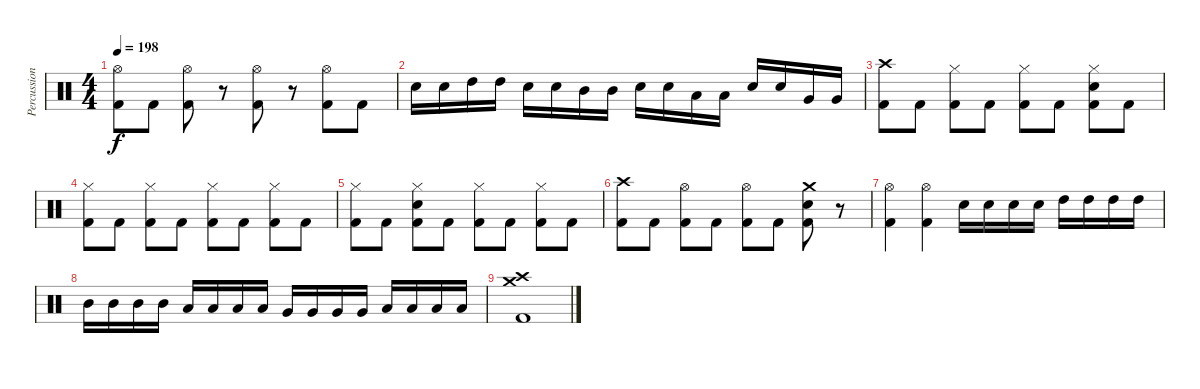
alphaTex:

\track ("Percussion" "Percussion") {instrument percussion}
\staff {score}
\articulation defaults
\ts (4 4)
\tempo 198
\clef neutral
\ks c
("Hi-Hat (open)" "Kick (hit) 2").8{dy f} "Kick (hit) 2".8 ("Hi-Hat (open)" "Kick (hit) 2").8 r.8 ("Hi-Hat (open)" "Kick (hit) 2").8 r.8 ("Hi-Hat (open)" "Kick (hit) 2").8 "Kick (hit) 2".8 |
"Electric Snare (hit)".16 "Electric Snare (hit)".16 "High Tom (hit)".16 "High Tom (hit)".16 "Electric Snare (hit)".16 "Electric Snare (hit)".16 "Mid Tom (hit)".16 "Mid Tom (hit)".16 "Electric Snare (hit)".16 "Electric Snare (hit)".16 "Low Tom (hit)".16 "Low Tom (hit)".16 "Electric Snare (hit)".16 "Electric Snare (hit)".16 "Very Low Tom (hit)".16 "Very Low Tom (hit)".16 |
("Crash high (hit)" "Kick (hit) 2").8 "Kick (hit) 2".8 ("Hi-Hat (closed)" "Kick (hit) 2").8 "Kick (hit) 2".8 ("Hi-Hat (closed)" "Kick (hit) 2").8 "Kick (hit) 2".8 ("Hi-Hat (closed)" "Electric Snare (hit)" "Kick (hit) 2").8 "Kick (hit) 2".8 |
("Hi-Hat (closed)" "Kick (hit) 2").8 "Kick (hit) 2".8 ("Hi-Hat (closed)" "Kick (hit) 2").8 "Kick (hit) 2".8 ("Hi-Hat (closed)" "Kick (hit) 2").8 "Kick (hit) 2".8 ("Hi-Hat (closed)" "Kick (hit) 2").8 "Kick (hit) 2".8 |
("Hi-Hat (closed)" "Kick (hit) 2").8 "Kick (hit) 2".8 ("Hi-Hat (closed)" "Electric Snare (hit)" "Kick (hit) 2").8 "Kick (hit) 2".8 ("Hi-Hat (closed)" "Kick (hit) 2").8 "Kick (hit) 2".8 ("Hi-Hat (closed)" "Kick (hit) 2").8 "Kick (hit) 2".8 |
("Crash high (hit)" "Kick (hit) 2").8 "Kick (hit) 2".8 ("Hi-Hat (open)" "Kick (hit) 2").8 "Kick (hit) 2".8 ("Hi-Hat (open)" "Kick (hit) 2").8 "Kick (hit) 2".8 ("Crash medium (hit)" "Electric Snare (hit)" "Kick (hit) 2").8 r.8 |
("Hi-Hat (open)" "Kick (hit) 2").4 ("Hi-Hat (open)" "Kick (hit) 2").4 "Electric Snare (hit)".16 "Electric Snare (hit)".16 "Electric Snare (hit)".16 "Electric Snare (hit)".16 "High Tom (hit)".16 "High Tom (hit)".16 "High Tom (hit)".16 "High Tom (hit)".16 |
"Mid Tom (hit)".16 "Mid Tom (hit)".16 "Mid Tom (hit)".16 "Mid Tom (hit)".16 "Low Tom (hit)".16 "Low Tom (hit)".16 "Low Tom (hit)".16 "Low Tom (hit)".16 "Very Low Tom (hit)".16 "Very Low Tom (hit)".16 "Very Low Tom (hit)".16 "Very Low Tom (hit)".16 "Low Floor Tom (hit)".16 "Low Floor Tom (hit)".16 "Low Floor Tom (hit)".16 "Low Floor Tom (hit)".16 |
("Crash medium (hit)" "Crash high (hit)" "Kick (hit) 2").1
